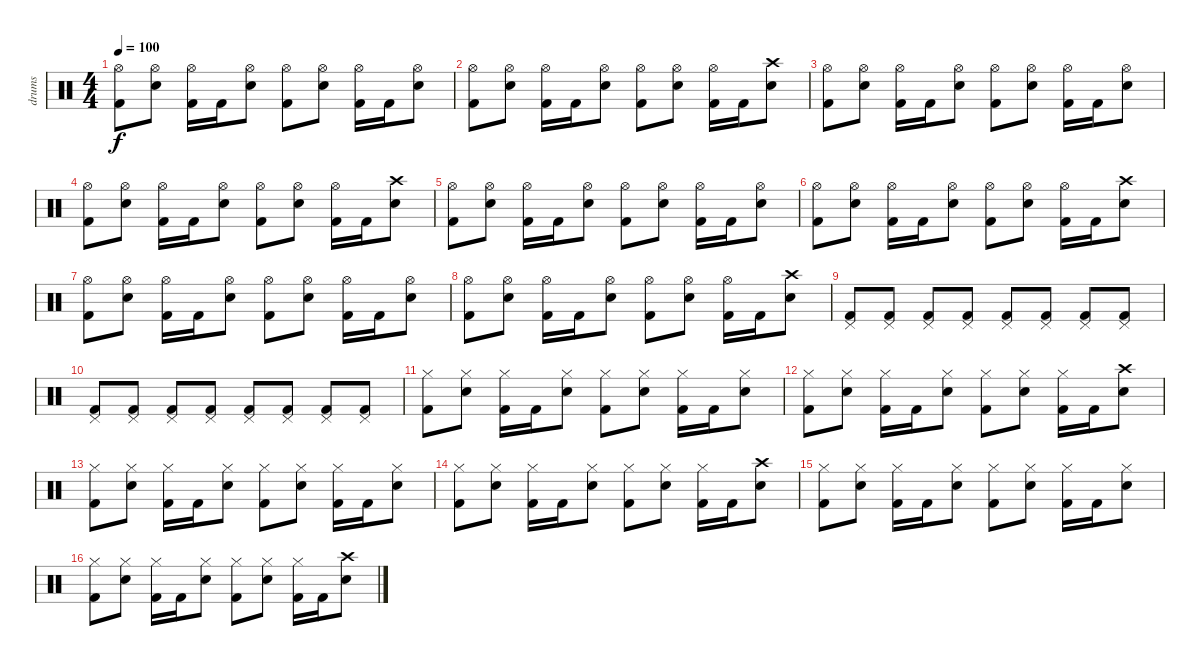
\track ("drums" "drums") {instrument percussion}
\staff {score}
\articulation defaults
\ts (4 4)
\tempo 100
\clef neutral
\ks c
("Hi-Hat (open)" "Kick (hit) 2").8{dy f} ("Hi-Hat (open)" "Electric Snare (hit)").8 ("Hi-Hat (open)" "Kick (hit) 2").16 "Kick (hit) 2".16 ("Hi-Hat (open)" "Electric Snare (hit)").8 ("Hi-Hat (open)" "Kick (hit) 2").8 ("Hi-Hat (open)" "Electric Snare (hit)").8 ("Hi-Hat (open)" "Kick (hit) 2").16 "Kick (hit) 2".16 ("Hi-Hat (open)" "Electric Snare (hit)").8 |
("Hi-Hat (open)" "Kick (hit) 2").8 ("Hi-Hat (open)" "Electric Snare (hit)").8 ("Hi-Hat (open)" "Kick (hit) 2").16 "Kick (hit) 2".16 ("Hi-Hat (open)" "Electric Snare (hit)").8 ("Hi-Hat (open)" "Kick (hit) 2").8 ("Hi-Hat (open)" "Electric Snare (hit)").8 ("Hi-Hat (open)" "Kick (hit) 2").16 "Kick (hit) 2".16 ("Crash high (hit)" "Electric Snare (hit)").8 |
("Hi-Hat (open)" "Kick (hit) 2").8 ("Hi-Hat (open)" "Electric Snare (hit)").8 ("Hi-Hat (open)" "Kick (hit) 2").16 "Kick (hit) 2".16 ("Hi-Hat (open)" "Electric Snare (hit)").8 ("Hi-Hat (open)" "Kick (hit) 2").8 ("Hi-Hat (open)" "Electric Snare (hit)").8 ("Hi-Hat (open)" "Kick (hit) 2").16 "Kick (hit) 2".16 ("Hi-Hat (open)" "Electric Snare (hit)").8 |
("Hi-Hat (open)" "Kick (hit) 2").8 ("Hi-Hat (open)" "Electric Snare (hit)").8 ("Hi-Hat (open)" "Kick (hit) 2").16 "Kick (hit) 2".16 ("Hi-Hat (open)" "Electric Snare (hit)").8 ("Hi-Hat (open)" "Kick (hit) 2").8 ("Hi-Hat (open)" "Electric Snare (hit)").8 ("Hi-Hat (open)" "Kick (hit) 2").16 "Kick (hit) 2".16 ("Crash high (hit)" "Electric Snare (hit)").8 |
("Hi-Hat (open)" "Kick (hit) 2").8 ("Hi-Hat (open)" "Electric Snare (hit)").8 ("Hi-Hat (open)" "Kick (hit) 2").16 "Kick (hit) 2".16 ("Hi-Hat (open)" "Electric Snare (hit)").8 ("Hi-Hat (open)" "Kick (hit) 2").8 ("Hi-Hat (open)" "Electric Snare (hit)").8 ("Hi-Hat (open)" "Kick (hit) 2").16 "Kick (hit) 2".16 ("Hi-Hat (open)" "Electric Snare (hit)").8 |
("Hi-Hat (open)" "Kick (hit) 2").8 ("Hi-Hat (open)" "Electric Snare (hit)").8 ("Hi-Hat (open)" "Kick (hit) 2").16 "Kick (hit) 2".16 ("Hi-Hat (open)" "Electric Snare (hit)").8 ("Hi-Hat (open)" "Kick (hit) 2").8 ("Hi-Hat (open)" "Electric Snare (hit)").8 ("Hi-Hat (open)" "Kick (hit) 2").16 "Kick (hit) 2".16 ("Crash high (hit)" "Electric Snare (hit)").8 |
("Hi-Hat (open)" "Kick (hit) 2").8 ("Hi-Hat (open)" "Electric Snare (hit)").8 ("Hi-Hat (open)" "Kick (hit) 2").16 "Kick (hit) 2".16 ("Hi-Hat (open)" "Electric Snare (hit)").8 ("Hi-Hat (open)" "Kick (hit) 2").8 ("Hi-Hat (open)" "Electric Snare (hit)").8 ("Hi-Hat (open)" "Kick (hit) 2").16 "Kick (hit) 2".16 ("Hi-Hat (open)" "Electric Snare (hit)").8 |
("Hi-Hat (open)" "Kick (hit) 2").8 ("Hi-Hat (open)" "Electric Snare (hit)").8 ("Hi-Hat (open)" "Kick (hit) 2").16 "Kick (hit) 2".16 ("Hi-Hat (open)" "Electric Snare (hit)").8 ("Hi-Hat (open)" "Kick (hit) 2").8 ("Hi-Hat (open)" "Electric Snare (hit)").8 ("Hi-Hat (open)" "Kick (hit) 2").16 "Kick (hit) 2".16 ("Crash high (hit)" "Electric Snare (hit)").8 |
("Pedal Hi-Hat (hit)" "Kick (hit) 2").8 ("Pedal Hi-Hat (hit)" "Kick (hit) 2").8 ("Pedal Hi-Hat (hit)" "Kick (hit) 2").8 ("Pedal Hi-Hat (hit)" "Kick (hit) 2").8 ("Pedal Hi-Hat (hit)" "Kick (hit) 2").8 ("Pedal Hi-Hat (hit)" "Kick (hit) 2").8 ("Pedal Hi-Hat (hit)" "Kick (hit) 2").8 ("Pedal Hi-Hat (hit)" "Kick (hit) 2").8 |
("Pedal Hi-Hat (hit)" "Kick (hit) 2").8 ("Pedal Hi-Hat (hit)" "Kick (hit) 2").8 ("Pedal Hi-Hat (hit)" "Kick (hit) 2").8 ("Pedal Hi-Hat (hit)" "Kick (hit) 2").8 ("Pedal Hi-Hat (hit)" "Kick (hit) 2").8 ("Pedal Hi-Hat (hit)" "Kick (hit) 2").8 ("Pedal Hi-Hat (hit)" "Kick (hit) 2").8 ("Pedal Hi-Hat (hit)" "Kick (hit) 2").8 |
("Hi-Hat (closed)" "Kick (hit) 2").8 ("Hi-Hat (closed)" "Electric Snare (hit)").8 ("Hi-Hat (closed)" "Kick (hit) 2").16 "Kick (hit) 2".16 ("Hi-Hat (closed)" "Electric Snare (hit)").8 ("Hi-Hat (closed)" "Kick (hit) 2").8 ("Hi-Hat (closed)" "Electric Snare (hit)").8 ("Hi-Hat (closed)" "Kick (hit) 2").16 "Kick (hit) 2".16 ("Hi-Hat (closed)" "Electric Snare (hit)").8 |
("Hi-Hat (closed)" "Kick (hit) 2").8 ("Hi-Hat (closed)" "Electric Snare (hit)").8 ("Hi-Hat (closed)" "Kick (hit) 2").16 "Kick (hit) 2".16 ("Hi-Hat (closed)" "Electric Snare (hit)").8 ("Hi-Hat (closed)" "Kick (hit) 2").8 ("Hi-Hat (closed)" "Electric Snare (hit)").8 ("Hi-Hat (closed)" "Kick (hit) 2").16 "Kick (hit) 2".16 ("Crash high (hit)" "Electric Snare (hit)").8 |
("Hi-Hat (closed)" "Kick (hit) 2").8 ("Hi-Hat (closed)" "Electric Snare (hit)").8 ("Hi-Hat (closed)" "Kick (hit) 2").16 "Kick (hit) 2".16 ("Hi-Hat (closed)" "Electric Snare (hit)").8 ("Hi-Hat (closed)" "Kick (hit) 2").8 ("Hi-Hat (closed)" "Electric Snare (hit)").8 ("Hi-Hat (closed)" "Kick (hit) 2").16 "Kick (hit) 2".16 ("Hi-Hat (closed)" "Electric Snare (hit)").8 |
("Hi-Hat (closed)" "Kick (hit) 2").8 ("Hi-Hat (closed)" "Electric Snare (hit)").8 ("Hi-Hat (closed)" "Kick (hit) 2").16 "Kick (hit) 2".16 ("Hi-Hat (closed)" "Electric Snare (hit)").8 ("Hi-Hat (closed)" "Kick (hit) 2").8 ("Hi-Hat (closed)" "Electric Snare (hit)").8 ("Hi-Hat (closed)" "Kick (hit) 2").16 "Kick (hit) 2".16 ("Crash high (hit)" "Electric Snare (hit)").8 |
("Hi-Hat (closed)" "Kick (hit) 2").8 ("Hi-Hat (closed)" "Electric Snare (hit)").8 ("Hi-Hat (closed)" "Kick (hit) 2").16 "Kick (hit) 2".16 ("Hi-Hat (closed)" "Electric Snare (hit)").8 ("Hi-Hat (closed)" "Kick (hit) 2").8 ("Hi-Hat (closed)" "Electric Snare (hit)").8 ("Hi-Hat (closed)" "Kick (hit) 2").16 "Kick (hit) 2".16 ("Hi-Hat (closed)" "Electric Snare (hit)").8 |
("Hi-Hat (closed)" "Kick (hit) 2").8 ("Hi-Hat (closed)" "Electric Snare (hit)").8 ("Hi-Hat (closed)" "Kick (hit) 2").16 "Kick (hit) 2".16 ("Hi-Hat (closed)" "Electric Snare (hit)").8 ("Hi-Hat (closed)" "Kick (hit) 2").8 ("Hi-Hat (closed)" "Electric Snare (hit)").8 ("Hi-Hat (closed)" "Kick (hit) 2").16 "Kick (hit) 2".16 ("Crash high (hit)" "Electric Snare (hit)").8
